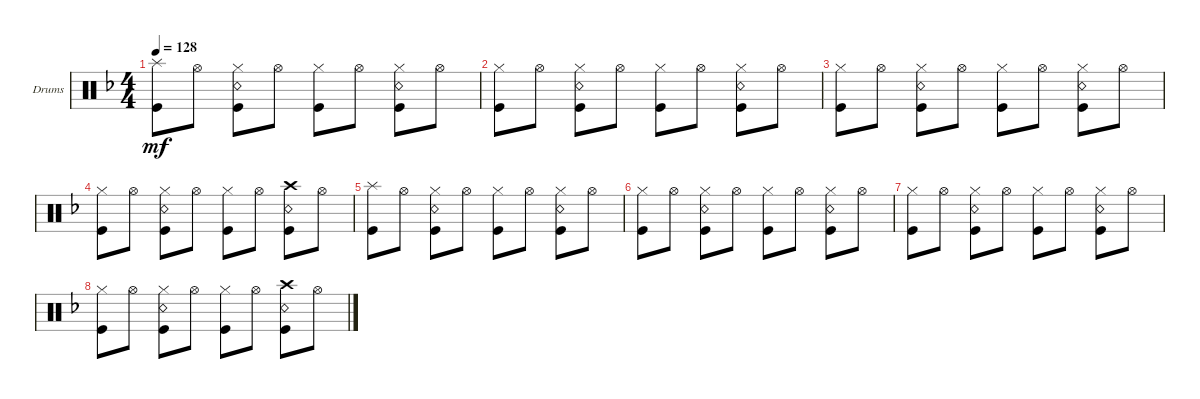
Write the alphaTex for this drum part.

\defaultSystemsLayout 4
\bracketExtendMode groupsimilarinstruments
\firstSystemTrackNameOrientation horizontal
\otherSystemsTrackNameOrientation horizontal
\track ("Drumkit" "Drums") {instrument percussion}
\staff {score}
\articulation defaults
\ts (4 4)
\tempo 128
\clef neutral
\ks f
("Kick (hit)" "Splash (hit)").8{dy mf} "Hi-Hat (open)".8 ("Snare (rim shot)" "Kick (hit)" "Hi-Hat (closed)").8 "Hi-Hat (open)".8 ("Hi-Hat (closed)" "Kick (hit)").8 "Hi-Hat (open)".8 ("Snare (rim shot)" "Kick (hit)" "Hi-Hat (closed)").8 "Hi-Hat (open)".8 |
("Hi-Hat (closed)" "Kick (hit)").8 "Hi-Hat (open)".8 ("Snare (rim shot)" "Kick (hit)" "Hi-Hat (closed)").8 "Hi-Hat (open)".8 ("Hi-Hat (closed)" "Kick (hit)").8 "Hi-Hat (open)".8 ("Snare (rim shot)" "Kick (hit)" "Hi-Hat (closed)").8 "Hi-Hat (open)".8 |
("Hi-Hat (closed)" "Kick (hit)").8 "Hi-Hat (open)".8 ("Snare (rim shot)" "Kick (hit)" "Hi-Hat (closed)").8 "Hi-Hat (open)".8 ("Hi-Hat (closed)" "Kick (hit)").8 "Hi-Hat (open)".8 ("Snare (rim shot)" "Kick (hit)" "Hi-Hat (closed)").8 "Hi-Hat (open)".8 |
("Hi-Hat (closed)" "Kick (hit)").8 "Hi-Hat (open)".8 ("Snare (rim shot)" "Kick (hit)" "Hi-Hat (closed)").8 "Hi-Hat (open)".8 ("Hi-Hat (closed)" "Kick (hit)").8 "Hi-Hat (open)".8 ("Snare (rim shot)" "Kick (hit)" "Crash high (hit)").8 "Hi-Hat (open)".8 |
("Kick (hit)" "Splash (hit)").8 "Hi-Hat (open)".8 ("Snare (rim shot)" "Kick (hit)" "Hi-Hat (closed)").8 "Hi-Hat (open)".8 ("Hi-Hat (closed)" "Kick (hit)").8 "Hi-Hat (open)".8 ("Snare (rim shot)" "Kick (hit)" "Hi-Hat (closed)").8 "Hi-Hat (open)".8 |
("Hi-Hat (closed)" "Kick (hit)").8 "Hi-Hat (open)".8 ("Snare (rim shot)" "Kick (hit)" "Hi-Hat (closed)").8 "Hi-Hat (open)".8 ("Hi-Hat (closed)" "Kick (hit)").8 "Hi-Hat (open)".8 ("Snare (rim shot)" "Kick (hit)" "Hi-Hat (closed)").8 "Hi-Hat (open)".8 |
("Hi-Hat (closed)" "Kick (hit)").8 "Hi-Hat (open)".8 ("Snare (rim shot)" "Kick (hit)" "Hi-Hat (closed)").8 "Hi-Hat (open)".8 ("Hi-Hat (closed)" "Kick (hit)").8 "Hi-Hat (open)".8 ("Snare (rim shot)" "Kick (hit)" "Hi-Hat (closed)").8 "Hi-Hat (open)".8 |
("Hi-Hat (closed)" "Kick (hit)").8 "Hi-Hat (open)".8 ("Snare (rim shot)" "Kick (hit)" "Hi-Hat (closed)").8 "Hi-Hat (open)".8 ("Hi-Hat (closed)" "Kick (hit)").8 "Hi-Hat (open)".8 ("Snare (rim shot)" "Kick (hit)" "Crash high (hit)").8 "Hi-Hat (open)".8
